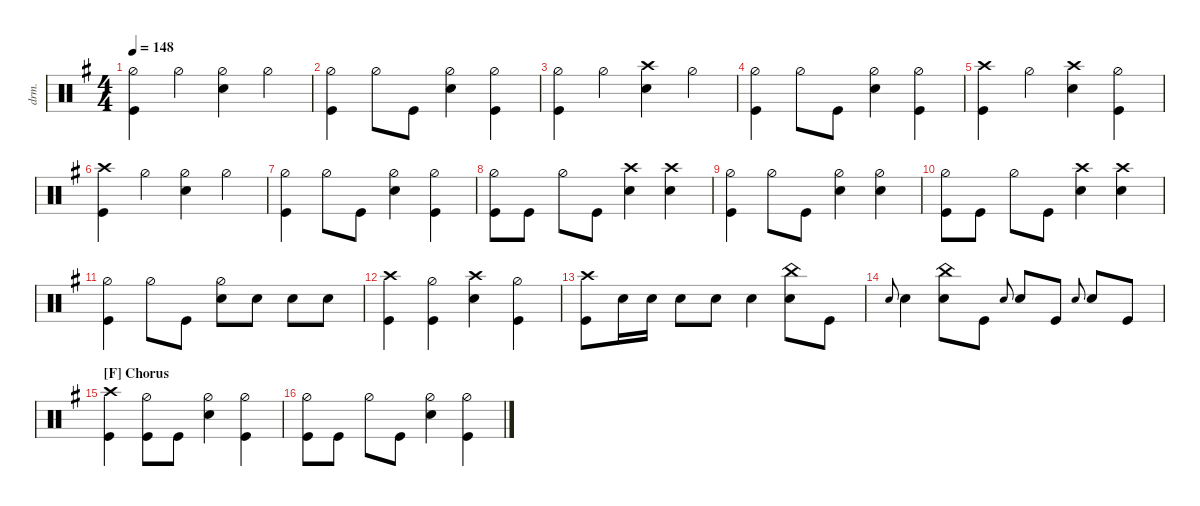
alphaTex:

\defaultSystemsLayout 4
\hideDynamics
\bracketExtendMode nobrackets
\otherSystemsTrackNameOrientation horizontal
\track ("Drums" "drm.") {multiBarRest instrument percussion}
\staff
\articulation defaults
\ts (4 4)
\tempo 148
\clef neutral
\ks eminor
("Kick (hit)"{acc forcenatural} "Hi-Hat (half)"{acc forcenatural}).4{dy mf beam Down} "Hi-Hat (half)"{acc forcenatural}.4{beam Down} ("Snare (hit) 2"{acc forcenatural} "Hi-Hat (half)"{acc forcenatural}).4{beam Down} "Hi-Hat (half)"{acc forcenatural}.4{beam Down} |
("Kick (hit)"{acc forcenatural} "Hi-Hat (half)"{acc forcenatural}).4{beam Down} "Hi-Hat (half)"{acc forcenatural}.8{beam Down} "Kick (hit)"{acc forcenatural}.8{beam Down} ("Hi-Hat (half)"{acc forcenatural} "Snare (hit) 2"{acc forcenatural}).4{beam Down} ("Kick (hit)"{acc forcenatural} "Hi-Hat (half)"{acc forcenatural}).4{beam Down} |
("Kick (hit)"{acc forcenatural} "Hi-Hat (half)"{acc forcenatural}).4{beam Down} "Hi-Hat (half)"{acc forcenatural}.4{beam Down} ("Snare (hit) 2"{acc forcenatural} "Crash high (hit)"{acc forcenatural}).4{beam Down} "Hi-Hat (half)"{acc forcenatural}.4{beam Down} |
("Kick (hit)"{acc forcenatural} "Hi-Hat (half)"{acc forcenatural}).4{beam Down} "Hi-Hat (half)"{acc forcenatural}.8{beam Down} "Kick (hit)"{acc forcenatural}.8{beam Down} ("Hi-Hat (half)"{acc forcenatural} "Snare (hit) 2"{acc forcenatural}).4{beam Down} ("Kick (hit)"{acc forcenatural} "Hi-Hat (half)"{acc forcenatural}).4{beam Down} |
("Kick (hit)"{acc forcenatural} "Crash high (hit)"{acc forcenatural}).4{beam Down} "Hi-Hat (half)"{acc forcenatural}.4{beam Down} ("Snare (hit) 2"{acc forcenatural} "Crash high (hit)"{acc forcenatural}).4{beam Down} ("Hi-Hat (half)"{acc forcenatural} "Kick (hit)"{acc forcenatural}).4{beam Down} |
("Kick (hit)"{acc forcenatural} "Crash high (hit)"{acc forcenatural}).4{beam Down} "Hi-Hat (half)"{acc forcenatural}.4{beam Down} ("Snare (hit) 2"{acc forcenatural} "Hi-Hat (half)"{acc forcenatural}).4{beam Down} "Hi-Hat (half)"{acc forcenatural}.4{beam Down} |
("Kick (hit)"{acc forcenatural} "Hi-Hat (half)"{acc forcenatural}).4{beam Down} "Hi-Hat (half)"{acc forcenatural}.8{beam Down} "Kick (hit)"{acc forcenatural}.8{beam Down} ("Hi-Hat (half)"{acc forcenatural} "Snare (hit) 2"{acc forcenatural}).4{beam Down} ("Kick (hit)"{acc forcenatural} "Hi-Hat (half)"{acc forcenatural}).4{beam Down} |
("Kick (hit)"{acc forcenatural} "Hi-Hat (half)"{acc forcenatural}).8{beam Down} "Kick (hit)"{acc forcenatural}.8{beam Down} "Hi-Hat (half)"{acc forcenatural}.8{beam Down} "Kick (hit)"{acc forcenatural}.8{beam Down} ("Snare (hit) 2"{acc forcenatural} "Crash high (hit)"{acc forcenatural}).4{beam Down} ("Snare (hit) 2"{acc forcenatural} "Crash high (hit)"{acc forcenatural}).4{beam Down} |
("Kick (hit)"{acc forcenatural} "Hi-Hat (half)"{acc forcenatural}).4{beam Down} "Hi-Hat (half)"{acc forcenatural}.8{beam Down} "Kick (hit)"{acc forcenatural}.8{beam Down} ("Hi-Hat (half)"{acc forcenatural} "Snare (hit) 2"{acc forcenatural}).4{beam Down} ("Hi-Hat (half)"{acc forcenatural} "Snare (hit) 2"{acc forcenatural}).4{beam Down} |
("Kick (hit)"{acc forcenatural} "Hi-Hat (half)"{acc forcenatural}).8{beam Down} "Kick (hit)"{acc forcenatural}.8{beam Down} "Hi-Hat (half)"{acc forcenatural}.8{beam Down} "Kick (hit)"{acc forcenatural}.8{beam Down} ("Snare (hit) 2"{acc forcenatural} "Crash high (hit)"{acc forcenatural}).4{beam Down} ("Snare (hit) 2"{acc forcenatural} "Crash high (hit)"{acc forcenatural}).4{beam Down} |
("Kick (hit)"{acc forcenatural} "Hi-Hat (half)"{acc forcenatural}).4{beam Down} "Hi-Hat (half)"{acc forcenatural}.8{beam Down} "Kick (hit)"{acc forcenatural}.8{beam Down} ("Hi-Hat (half)"{acc forcenatural} "Snare (hit) 2"{acc forcenatural}).8{beam Down} "Snare (hit) 2"{acc forcenatural}.8{beam Down} "Snare (hit) 2"{acc forcenatural}.8{beam Down} "Snare (hit) 2"{acc forcenatural}.8{beam Down} |
("Kick (hit)"{acc forcenatural} "Crash high (hit)"{acc forcenatural}).4{beam Down} ("Hi-Hat (half)"{acc forcenatural} "Kick (hit)"{acc forcenatural}).4{beam Down} ("Crash high (hit)"{acc forcenatural} "Snare (hit) 2"{acc forcenatural}).4{beam Down} ("Hi-Hat (half)"{acc forcenatural} "Kick (hit)"{acc forcenatural}).4{beam Down} |
("Crash high (hit)"{acc forcenatural} "Kick (hit)"{acc forcenatural}).8{beam Down} "Snare (hit) 2"{acc forcenatural}.16{dy p beam Down} "Snare (hit) 2"{acc forcenatural}.16{beam Down} "Snare (hit) 2"{acc forcenatural}.8{dy mf beam Down} "Snare (hit) 2"{acc forcenatural}.8{beam Down} "Snare (hit) 2"{acc forcenatural}.4{beam Down} ("Snare (hit) 2"{acc forcenatural} "China (hit)"{acc forcenatural}).8{beam Down} "Kick (hit)"{acc forcenatural}.8{beam Down} |
"Snare (hit) 2"{acc forcenatural}.8{gr onbeat beam Up} "Snare (hit) 2"{acc forcenatural}.4{beam Down} ("Snare (hit) 2"{acc forcenatural} "China (hit)"{acc forcenatural}).8{beam Down} "Kick (hit)"{acc forcenatural}.8{beam Down} "Snare (hit) 2"{acc forcenatural}.8{gr onbeat beam Up} "Snare (hit) 2"{acc forcenatural}.8{beam Up} "Kick (hit)"{acc forcenatural}.8{beam Up} "Snare (hit) 2"{acc forcenatural}.8{gr onbeat beam Up} "Snare (hit) 2"{acc forcenatural}.8{beam Up} "Kick (hit)"{acc forcenatural}.8{beam Up} |
\section ("F" "Chorus")
("Kick (hit)"{acc forcenatural} "Crash high (hit)"{acc forcenatural}).4{beam Down} ("Hi-Hat (half)"{acc forcenatural} "Kick (hit)"{acc forcenatural}).8{beam Down} "Kick (hit)"{acc forcenatural}.8{beam Down} ("Snare (hit) 2"{acc forcenatural} "Hi-Hat (half)"{acc forcenatural}).4{beam Down} ("Kick (hit)"{acc forcenatural} "Hi-Hat (half)"{acc forcenatural}).4{beam Down} |
("Hi-Hat (half)"{acc forcenatural} "Kick (hit)"{acc forcenatural}).8{beam Down} "Kick (hit)"{acc forcenatural}.8{beam Down} "Hi-Hat (half)"{acc forcenatural}.8{beam Down} "Kick (hit)"{acc forcenatural}.8{beam Down} ("Snare (hit) 2"{acc forcenatural} "Hi-Hat (half)"{acc forcenatural}).4{beam Down} ("Kick (hit)"{acc forcenatural} "Hi-Hat (half)"{acc forcenatural}).4{beam Down}
